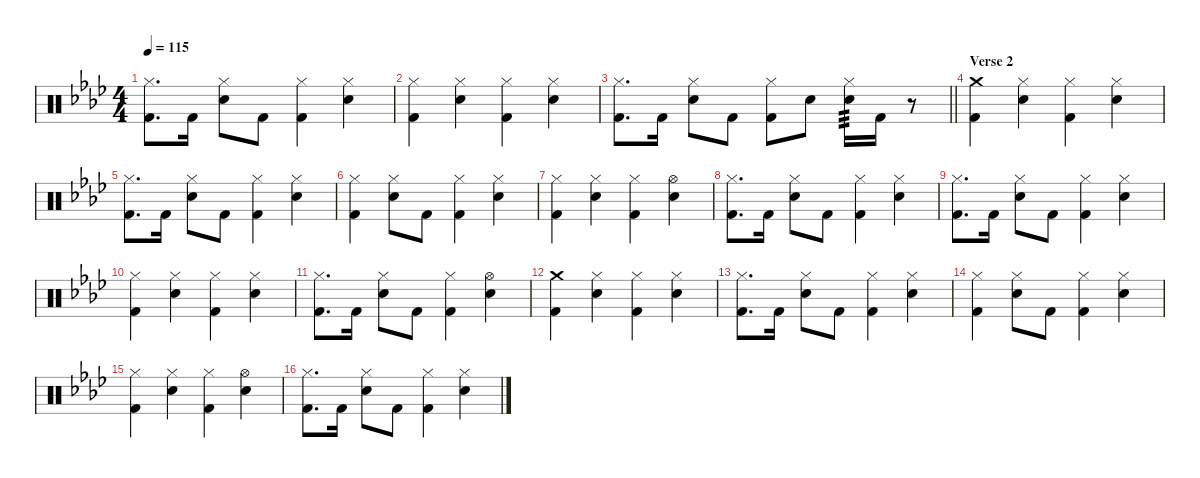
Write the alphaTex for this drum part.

\defaultSystemsLayout 4
\hideDynamics
\bracketExtendMode nobrackets
\singleTrackTrackNamePolicy hidden
\multiTrackTrackNamePolicy hidden
\firstSystemTrackNameMode fullname
\firstSystemTrackNameOrientation horizontal
\otherSystemsTrackNameOrientation horizontal
\track ("Drums" "drm.") {instrument percussion}
\staff {score}
\articulation defaults
\ts (4 4)
\tempo 115
\clef neutral
\ks ab
("Hi-Hat (closed)"{acc forcenatural} "Kick (hit) 2"{acc forcenatural}).8{d dy f beam Down} "Kick (hit) 2"{acc forcenatural}.16{beam Down} ("Hi-Hat (closed)"{acc forcenatural} "Snare (hit) 2"{acc forcenatural}).8{beam Down} "Kick (hit) 2"{acc forcenatural}.8{beam Down} ("Hi-Hat (closed)"{acc forcenatural} "Kick (hit) 2"{acc forcenatural}).4{beam Down} ("Hi-Hat (closed)"{acc forcenatural} "Snare (hit) 2"{acc forcenatural}).4{beam Down} |
("Hi-Hat (closed)"{acc forcenatural} "Kick (hit) 2"{acc forcenatural}).4{beam Down} ("Hi-Hat (closed)"{acc forcenatural} "Snare (hit) 2"{acc forcenatural}).4{beam Down} ("Hi-Hat (closed)"{acc forcenatural} "Kick (hit) 2"{acc forcenatural}).4{beam Down} ("Hi-Hat (closed)"{acc forcenatural} "Snare (hit) 2"{acc forcenatural}).4{beam Down} |
\barLineRight lightlight
("Hi-Hat (closed)"{acc forcenatural} "Kick (hit) 2"{acc forcenatural}).8{d beam Down} "Kick (hit) 2"{acc forcenatural}.16{beam Down} ("Hi-Hat (closed)"{acc forcenatural} "Snare (hit) 2"{acc forcenatural}).8{beam Down} "Kick (hit) 2"{acc forcenatural}.8{beam Down} ("Hi-Hat (closed)"{acc forcenatural} "Kick (hit) 2"{acc forcenatural}).8{beam Down} "Snare (hit) 2"{acc forcenatural}.8{beam Down} ("Hi-Hat (closed)"{acc forcenatural} "Snare (hit) 2"{acc forcenatural}).16{tp 3 beam Down} "Kick (hit) 2"{acc forcenatural}.16{beam Down} r.8{beam Down} |
\section ("" "Verse 2")
("Crash medium (hit)"{acc forcenatural} "Kick (hit) 2"{acc forcenatural}).4{beam Down} ("Hi-Hat (closed)"{acc forcenatural} "Snare (hit) 2"{acc forcenatural}).4{beam Down} ("Hi-Hat (closed)"{acc forcenatural} "Kick (hit) 2"{acc forcenatural}).4{beam Down} ("Hi-Hat (closed)"{acc forcenatural} "Snare (hit) 2"{acc forcenatural}).4{beam Down} |
("Hi-Hat (closed)"{acc forcenatural} "Kick (hit) 2"{acc forcenatural}).8{d beam Down} "Kick (hit) 2"{acc forcenatural}.16{beam Down} ("Hi-Hat (closed)"{acc forcenatural} "Snare (hit) 2"{acc forcenatural}).8{beam Down} "Kick (hit) 2"{acc forcenatural}.8{beam Down} ("Hi-Hat (closed)"{acc forcenatural} "Kick (hit) 2"{acc forcenatural}).4{beam Down} ("Hi-Hat (closed)"{acc forcenatural} "Snare (hit) 2"{acc forcenatural}).4{beam Down} |
("Hi-Hat (closed)"{acc forcenatural} "Kick (hit) 2"{acc forcenatural}).4{beam Down} ("Hi-Hat (closed)"{acc forcenatural} "Snare (hit) 2"{acc forcenatural}).8{beam Down} "Kick (hit) 2"{acc forcenatural}.8{beam Down} ("Hi-Hat (closed)"{acc forcenatural} "Kick (hit) 2"{acc forcenatural}).4{beam Down} ("Hi-Hat (closed)"{acc forcenatural} "Snare (hit) 2"{acc forcenatural}).4{beam Down} |
("Hi-Hat (closed)"{acc forcenatural} "Kick (hit) 2"{acc forcenatural}).4{beam Down} ("Hi-Hat (closed)"{acc forcenatural} "Snare (hit) 2"{acc forcenatural}).4{beam Down} ("Hi-Hat (closed)"{acc forcenatural} "Kick (hit) 2"{acc forcenatural}).4{beam Down} ("Hi-Hat (open)"{acc forcenatural} "Snare (hit) 2"{acc forcenatural}).4{beam Down} |
("Hi-Hat (closed)"{acc forcenatural} "Kick (hit) 2"{acc forcenatural}).8{d beam Down} "Kick (hit) 2"{acc forcenatural}.16{beam Down} ("Hi-Hat (closed)"{acc forcenatural} "Snare (hit) 2"{acc forcenatural}).8{beam Down} "Kick (hit) 2"{acc forcenatural}.8{beam Down} ("Hi-Hat (closed)"{acc forcenatural} "Kick (hit) 2"{acc forcenatural}).4{beam Down} ("Hi-Hat (closed)"{acc forcenatural} "Snare (hit) 2"{acc forcenatural}).4{beam Down} |
("Hi-Hat (closed)"{acc forcenatural} "Kick (hit) 2"{acc forcenatural}).8{d beam Down} "Kick (hit) 2"{acc forcenatural}.16{beam Down} ("Hi-Hat (closed)"{acc forcenatural} "Snare (hit) 2"{acc forcenatural}).8{beam Down} "Kick (hit) 2"{acc forcenatural}.8{beam Down} ("Hi-Hat (closed)"{acc forcenatural} "Kick (hit) 2"{acc forcenatural}).4{beam Down} ("Hi-Hat (closed)"{acc forcenatural} "Snare (hit) 2"{acc forcenatural}).4{beam Down} |
("Hi-Hat (closed)"{acc forcenatural} "Kick (hit) 2"{acc forcenatural}).4{beam Down} ("Hi-Hat (closed)"{acc forcenatural} "Snare (hit) 2"{acc forcenatural}).4{beam Down} ("Hi-Hat (closed)"{acc forcenatural} "Kick (hit) 2"{acc forcenatural}).4{beam Down} ("Hi-Hat (closed)"{acc forcenatural} "Snare (hit) 2"{acc forcenatural}).4{beam Down} |
("Hi-Hat (closed)"{acc forcenatural} "Kick (hit) 2"{acc forcenatural}).8{d beam Down} "Kick (hit) 2"{acc forcenatural}.16{beam Down} ("Hi-Hat (closed)"{acc forcenatural} "Snare (hit) 2"{acc forcenatural}).8{beam Down} "Kick (hit) 2"{acc forcenatural}.8{beam Down} ("Hi-Hat (closed)"{acc forcenatural} "Kick (hit) 2"{acc forcenatural}).4{beam Down} ("Hi-Hat (open)"{acc forcenatural} "Snare (hit) 2"{acc forcenatural}).4{beam Down} |
("Crash medium (hit)"{acc forcenatural} "Kick (hit) 2"{acc forcenatural}).4{beam Down} ("Hi-Hat (closed)"{acc forcenatural} "Snare (hit) 2"{acc forcenatural}).4{beam Down} ("Hi-Hat (closed)"{acc forcenatural} "Kick (hit) 2"{acc forcenatural}).4{beam Down} ("Hi-Hat (closed)"{acc forcenatural} "Snare (hit) 2"{acc forcenatural}).4{beam Down} |
("Hi-Hat (closed)"{acc forcenatural} "Kick (hit) 2"{acc forcenatural}).8{d beam Down} "Kick (hit) 2"{acc forcenatural}.16{beam Down} ("Hi-Hat (closed)"{acc forcenatural} "Snare (hit) 2"{acc forcenatural}).8{beam Down} "Kick (hit) 2"{acc forcenatural}.8{beam Down} ("Hi-Hat (closed)"{acc forcenatural} "Kick (hit) 2"{acc forcenatural}).4{beam Down} ("Hi-Hat (closed)"{acc forcenatural} "Snare (hit) 2"{acc forcenatural}).4{beam Down} |
("Hi-Hat (closed)"{acc forcenatural} "Kick (hit) 2"{acc forcenatural}).4{beam Down} ("Hi-Hat (closed)"{acc forcenatural} "Snare (hit) 2"{acc forcenatural}).8{beam Down} "Kick (hit) 2"{acc forcenatural}.8{beam Down} ("Hi-Hat (closed)"{acc forcenatural} "Kick (hit) 2"{acc forcenatural}).4{beam Down} ("Hi-Hat (closed)"{acc forcenatural} "Snare (hit) 2"{acc forcenatural}).4{beam Down} |
("Hi-Hat (closed)"{acc forcenatural} "Kick (hit) 2"{acc forcenatural}).4{beam Down} ("Hi-Hat (closed)"{acc forcenatural} "Snare (hit) 2"{acc forcenatural}).4{beam Down} ("Hi-Hat (closed)"{acc forcenatural} "Kick (hit) 2"{acc forcenatural}).4{beam Down} ("Hi-Hat (open)"{acc forcenatural} "Snare (hit) 2"{acc forcenatural}).4{beam Down} |
("Hi-Hat (closed)"{acc forcenatural} "Kick (hit) 2"{acc forcenatural}).8{d beam Down} "Kick (hit) 2"{acc forcenatural}.16{beam Down} ("Hi-Hat (closed)"{acc forcenatural} "Snare (hit) 2"{acc forcenatural}).8{beam Down} "Kick (hit) 2"{acc forcenatural}.8{beam Down} ("Hi-Hat (closed)"{acc forcenatural} "Kick (hit) 2"{acc forcenatural}).4{beam Down} ("Hi-Hat (closed)"{acc forcenatural} "Snare (hit) 2"{acc forcenatural}).4{beam Down}
